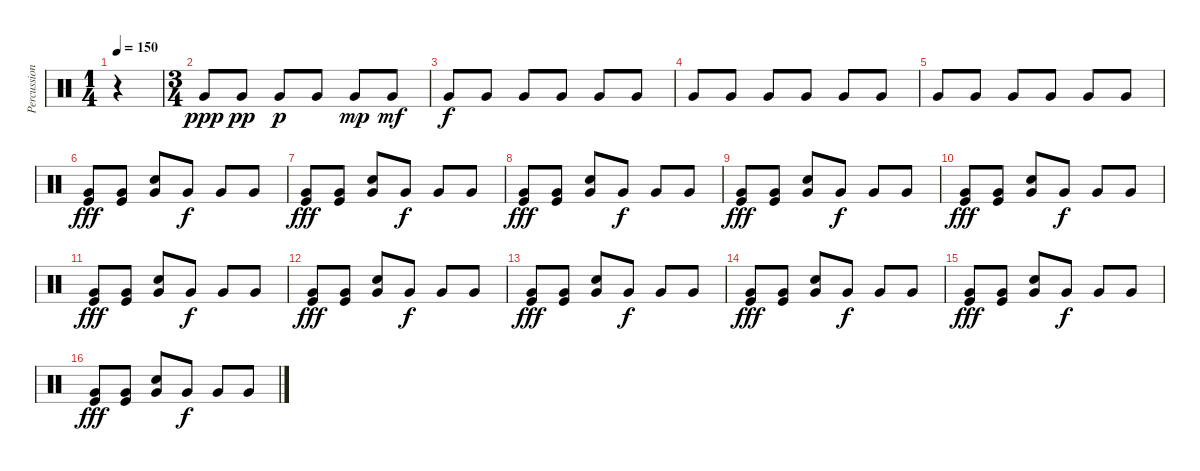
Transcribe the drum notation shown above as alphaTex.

\track ("Percussions" "Percussion") {instrument percussion}
\staff {score}
\articulation defaults
\ts (1 4)
\tempo 150
\tempo 100
\tempo 150
\clef neutral
\ks c
r.4{dy ppp} |
\ts (3 4)
"Very Low Tom (hit)".8 "Very Low Tom (hit)".8{dy pp} "Very Low Tom (hit)".8{dy p} "Very Low Tom (hit)".8 "Very Low Tom (hit)".8{dy mp} "Very Low Tom (hit)".8{dy mf} |
"Very Low Tom (hit)".8{dy f} "Very Low Tom (hit)".8 "Very Low Tom (hit)".8 "Very Low Tom (hit)".8 "Very Low Tom (hit)".8 "Very Low Tom (hit)".8 |
"Very Low Tom (hit)".8 "Very Low Tom (hit)".8 "Very Low Tom (hit)".8 "Very Low Tom (hit)".8 "Very Low Tom (hit)".8 "Very Low Tom (hit)".8 |
"Very Low Tom (hit)".8 "Very Low Tom (hit)".8 "Very Low Tom (hit)".8 "Very Low Tom (hit)".8 "Very Low Tom (hit)".8 "Very Low Tom (hit)".8 |
("Very Low Tom (hit)" "Kick (hit)").8{dy fff} ("Very Low Tom (hit)" "Kick (hit)").8 ("Very Low Tom (hit)" "Electric Snare (hit)").8 "Very Low Tom (hit)".8{dy f} "Very Low Tom (hit)".8 "Very Low Tom (hit)".8 |
("Very Low Tom (hit)" "Kick (hit)").8{dy fff} ("Very Low Tom (hit)" "Kick (hit)").8 ("Very Low Tom (hit)" "Electric Snare (hit)").8 "Very Low Tom (hit)".8{dy f} "Very Low Tom (hit)".8 "Very Low Tom (hit)".8 |
("Very Low Tom (hit)" "Kick (hit)").8{dy fff} ("Very Low Tom (hit)" "Kick (hit)").8 ("Very Low Tom (hit)" "Electric Snare (hit)").8 "Very Low Tom (hit)".8{dy f} "Very Low Tom (hit)".8 "Very Low Tom (hit)".8 |
("Very Low Tom (hit)" "Kick (hit)").8{dy fff} ("Very Low Tom (hit)" "Kick (hit)").8 ("Very Low Tom (hit)" "Electric Snare (hit)").8 "Very Low Tom (hit)".8{dy f} "Very Low Tom (hit)".8 "Very Low Tom (hit)".8 |
("Very Low Tom (hit)" "Kick (hit)").8{dy fff} ("Very Low Tom (hit)" "Kick (hit)").8 ("Very Low Tom (hit)" "Electric Snare (hit)").8 "Very Low Tom (hit)".8{dy f} "Very Low Tom (hit)".8 "Very Low Tom (hit)".8 |
("Very Low Tom (hit)" "Kick (hit)").8{dy fff} ("Very Low Tom (hit)" "Kick (hit)").8 ("Very Low Tom (hit)" "Electric Snare (hit)").8 "Very Low Tom (hit)".8{dy f} "Very Low Tom (hit)".8 "Very Low Tom (hit)".8 |
("Very Low Tom (hit)" "Kick (hit)").8{dy fff} ("Very Low Tom (hit)" "Kick (hit)").8 ("Very Low Tom (hit)" "Electric Snare (hit)").8 "Very Low Tom (hit)".8{dy f} "Very Low Tom (hit)".8 "Very Low Tom (hit)".8 |
("Very Low Tom (hit)" "Kick (hit)").8{dy fff} ("Very Low Tom (hit)" "Kick (hit)").8 ("Very Low Tom (hit)" "Electric Snare (hit)").8 "Very Low Tom (hit)".8{dy f} "Very Low Tom (hit)".8 "Very Low Tom (hit)".8 |
("Very Low Tom (hit)" "Kick (hit)").8{dy fff} ("Very Low Tom (hit)" "Kick (hit)").8 ("Very Low Tom (hit)" "Electric Snare (hit)").8 "Very Low Tom (hit)".8{dy f} "Very Low Tom (hit)".8 "Very Low Tom (hit)".8 |
("Very Low Tom (hit)" "Kick (hit)").8{dy fff} ("Very Low Tom (hit)" "Kick (hit)").8 ("Very Low Tom (hit)" "Electric Snare (hit)").8 "Very Low Tom (hit)".8{dy f} "Very Low Tom (hit)".8 "Very Low Tom (hit)".8 |
("Very Low Tom (hit)" "Kick (hit)").8{dy fff} ("Very Low Tom (hit)" "Kick (hit)").8 ("Very Low Tom (hit)" "Electric Snare (hit)").8 "Very Low Tom (hit)".8{dy f} "Very Low Tom (hit)".8 "Very Low Tom (hit)".8
